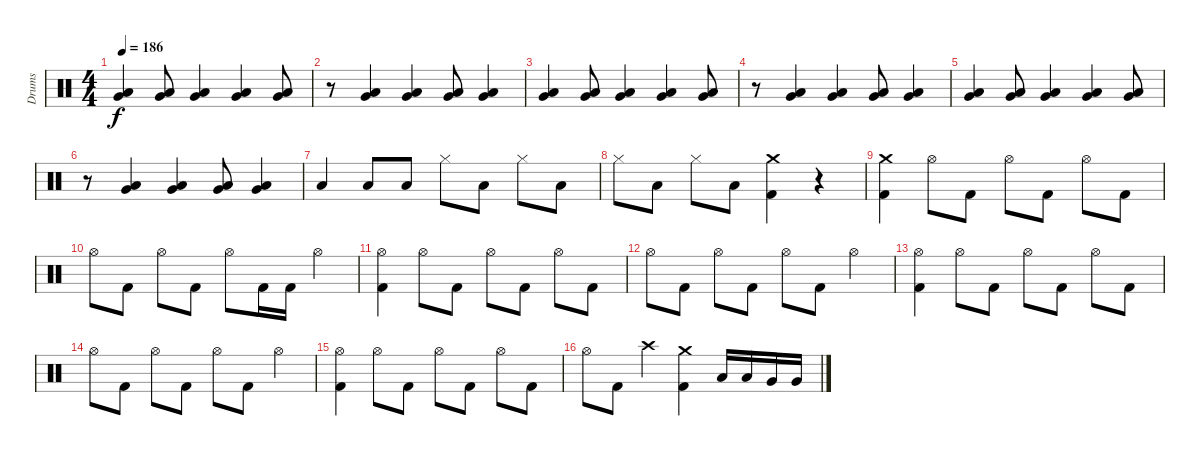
\track ("Drums" "Drums") {instrument percussion}
\staff {score}
\articulation defaults
\ts (4 4)
\tempo 186
\clef neutral
\ks c
("Very Low Tom (hit)" "Low Floor Tom (hit)").4{dy f} ("Very Low Tom (hit)" "Low Floor Tom (hit)").8 ("Very Low Tom (hit)" "Low Floor Tom (hit)").4 ("Very Low Tom (hit)" "Low Floor Tom (hit)").4 ("Very Low Tom (hit)" "Low Floor Tom (hit)").8 |
r.8 ("Very Low Tom (hit)" "Low Floor Tom (hit)").4 ("Very Low Tom (hit)" "Low Floor Tom (hit)").4 ("Very Low Tom (hit)" "Low Floor Tom (hit)").8 ("Very Low Tom (hit)" "Low Floor Tom (hit)").4 |
("Very Low Tom (hit)" "Low Floor Tom (hit)").4 ("Very Low Tom (hit)" "Low Floor Tom (hit)").8 ("Very Low Tom (hit)" "Low Floor Tom (hit)").4 ("Very Low Tom (hit)" "Low Floor Tom (hit)").4 ("Very Low Tom (hit)" "Low Floor Tom (hit)").8 |
r.8 ("Very Low Tom (hit)" "Low Floor Tom (hit)").4 ("Very Low Tom (hit)" "Low Floor Tom (hit)").4 ("Very Low Tom (hit)" "Low Floor Tom (hit)").8 ("Very Low Tom (hit)" "Low Floor Tom (hit)").4 |
("Very Low Tom (hit)" "Low Floor Tom (hit)").4 ("Very Low Tom (hit)" "Low Floor Tom (hit)").8 ("Very Low Tom (hit)" "Low Floor Tom (hit)").4 ("Very Low Tom (hit)" "Low Floor Tom (hit)").4 ("Very Low Tom (hit)" "Low Floor Tom (hit)").8 |
r.8 ("Very Low Tom (hit)" "Low Floor Tom (hit)").4 ("Very Low Tom (hit)" "Low Floor Tom (hit)").4 ("Very Low Tom (hit)" "Low Floor Tom (hit)").8 ("Very Low Tom (hit)" "Low Floor Tom (hit)").4 |
"Low Floor Tom (hit)".4 "Low Floor Tom (hit)".8 "Low Floor Tom (hit)".8 "Hi-Hat (closed)".8 "Low Floor Tom (hit)".8 "Hi-Hat (closed)".8 "Low Floor Tom (hit)".8 |
"Hi-Hat (closed)".8 "Low Floor Tom (hit)".8 "Hi-Hat (closed)".8 "Low Floor Tom (hit)".8 ("Crash medium (hit)" "Kick (hit) 2").4 r.4 |
("Crash medium (hit)" "Kick (hit) 2").4 "Hi-Hat (open)".8 "Kick (hit) 2".8 "Hi-Hat (open)".8 "Kick (hit) 2".8 "Hi-Hat (open)".8 "Kick (hit) 2".8 |
"Hi-Hat (open)".8 "Kick (hit) 2".8 "Hi-Hat (open)".8 "Kick (hit) 2".8 "Hi-Hat (open)".8 "Kick (hit) 2".16 "Kick (hit) 2".16 "Hi-Hat (open)".4 |
("Hi-Hat (open)" "Kick (hit) 2").4 "Hi-Hat (open)".8 "Kick (hit) 2".8 "Hi-Hat (open)".8 "Kick (hit) 2".8 "Hi-Hat (open)".8 "Kick (hit) 2".8 |
"Hi-Hat (open)".8 "Kick (hit) 2".8 "Hi-Hat (open)".8 "Kick (hit) 2".8 "Hi-Hat (open)".8 "Kick (hit) 2".8 "Hi-Hat (open)".4 |
("Hi-Hat (open)" "Kick (hit) 2").4 "Hi-Hat (open)".8 "Kick (hit) 2".8 "Hi-Hat (open)".8 "Kick (hit) 2".8 "Hi-Hat (open)".8 "Kick (hit) 2".8 |
"Hi-Hat (open)".8 "Kick (hit) 2".8 "Hi-Hat (open)".8 "Kick (hit) 2".8 "Hi-Hat (open)".8 "Kick (hit) 2".8 "Hi-Hat (open)".4 |
("Hi-Hat (open)" "Kick (hit) 2").4 "Hi-Hat (open)".8 "Kick (hit) 2".8 "Hi-Hat (open)".8 "Kick (hit) 2".8 "Hi-Hat (open)".8 "Kick (hit) 2".8 |
"Hi-Hat (open)".8 "Kick (hit) 2".8 "Crash high (hit)".4 ("Crash medium (hit)" "Kick (hit) 2").4 "Low Tom (hit)".16 "Low Tom (hit)".16 "Very Low Tom (hit)".16 "Very Low Tom (hit)".16
